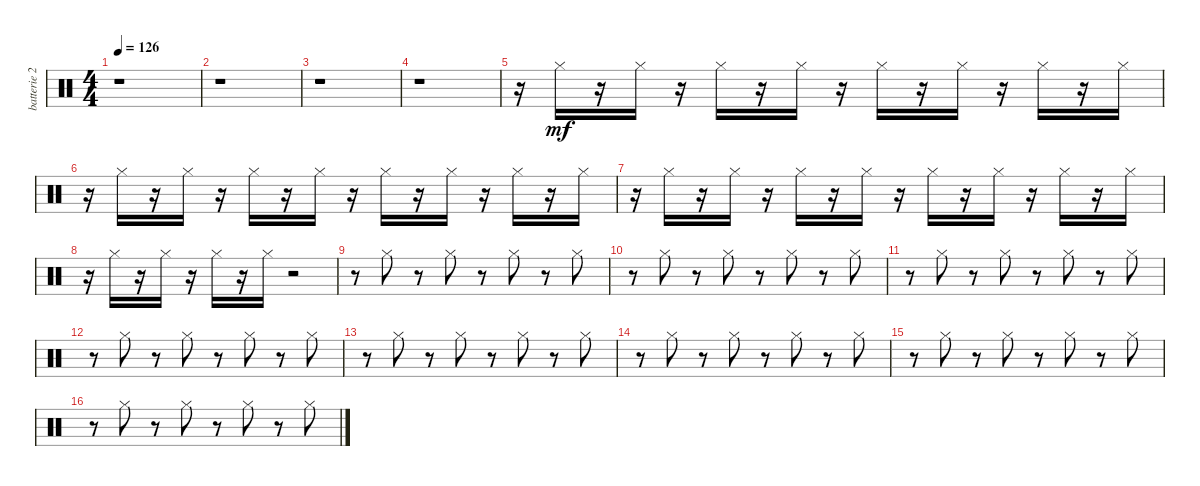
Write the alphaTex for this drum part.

\track ("batterie 2" "batterie 2") {instrument percussion}
\staff {score}
\articulation defaults
\ts (4 4)
\tempo 126
\clef neutral
\ks c
r.1{dy mf} |
r.1 |
r.1 |
r.1 |
r.16 "Hi-Hat (closed)".16 r.16 "Hi-Hat (closed)".16 r.16 "Hi-Hat (closed)".16 r.16 "Hi-Hat (closed)".16 r.16 "Hi-Hat (closed)".16 r.16 "Hi-Hat (closed)".16 r.16 "Hi-Hat (closed)".16 r.16 "Hi-Hat (closed)".16 |
r.16 "Hi-Hat (closed)".16 r.16 "Hi-Hat (closed)".16 r.16 "Hi-Hat (closed)".16 r.16 "Hi-Hat (closed)".16 r.16 "Hi-Hat (closed)".16 r.16 "Hi-Hat (closed)".16 r.16 "Hi-Hat (closed)".16 r.16 "Hi-Hat (closed)".16 |
r.16 "Hi-Hat (closed)".16 r.16 "Hi-Hat (closed)".16 r.16 "Hi-Hat (closed)".16 r.16 "Hi-Hat (closed)".16 r.16 "Hi-Hat (closed)".16 r.16 "Hi-Hat (closed)".16 r.16 "Hi-Hat (closed)".16 r.16 "Hi-Hat (closed)".16 |
r.16 "Hi-Hat (closed)".16 r.16 "Hi-Hat (closed)".16 r.16 "Hi-Hat (closed)".16 r.16 "Hi-Hat (closed)".16 r.2 |
r.8 "Hi-Hat (closed)".8 r.8 "Hi-Hat (closed)".8 r.8 "Hi-Hat (closed)".8 r.8 "Hi-Hat (closed)".8 |
r.8 "Hi-Hat (closed)".8 r.8 "Hi-Hat (closed)".8 r.8 "Hi-Hat (closed)".8 r.8 "Hi-Hat (closed)".8 |
r.8 "Hi-Hat (closed)".8 r.8 "Hi-Hat (closed)".8 r.8 "Hi-Hat (closed)".8 r.8 "Hi-Hat (closed)".8 |
r.8 "Hi-Hat (closed)".8 r.8 "Hi-Hat (closed)".8 r.8 "Hi-Hat (closed)".8 r.8 "Hi-Hat (closed)".8 |
r.8 "Hi-Hat (closed)".8 r.8 "Hi-Hat (closed)".8 r.8 "Hi-Hat (closed)".8 r.8 "Hi-Hat (closed)".8 |
r.8 "Hi-Hat (closed)".8 r.8 "Hi-Hat (closed)".8 r.8 "Hi-Hat (closed)".8 r.8 "Hi-Hat (closed)".8 |
r.8 "Hi-Hat (closed)".8 r.8 "Hi-Hat (closed)".8 r.8 "Hi-Hat (closed)".8 r.8 "Hi-Hat (closed)".8 |
r.8 "Hi-Hat (closed)".8 r.8 "Hi-Hat (closed)".8 r.8 "Hi-Hat (closed)".8 r.8 "Hi-Hat (closed)".8
